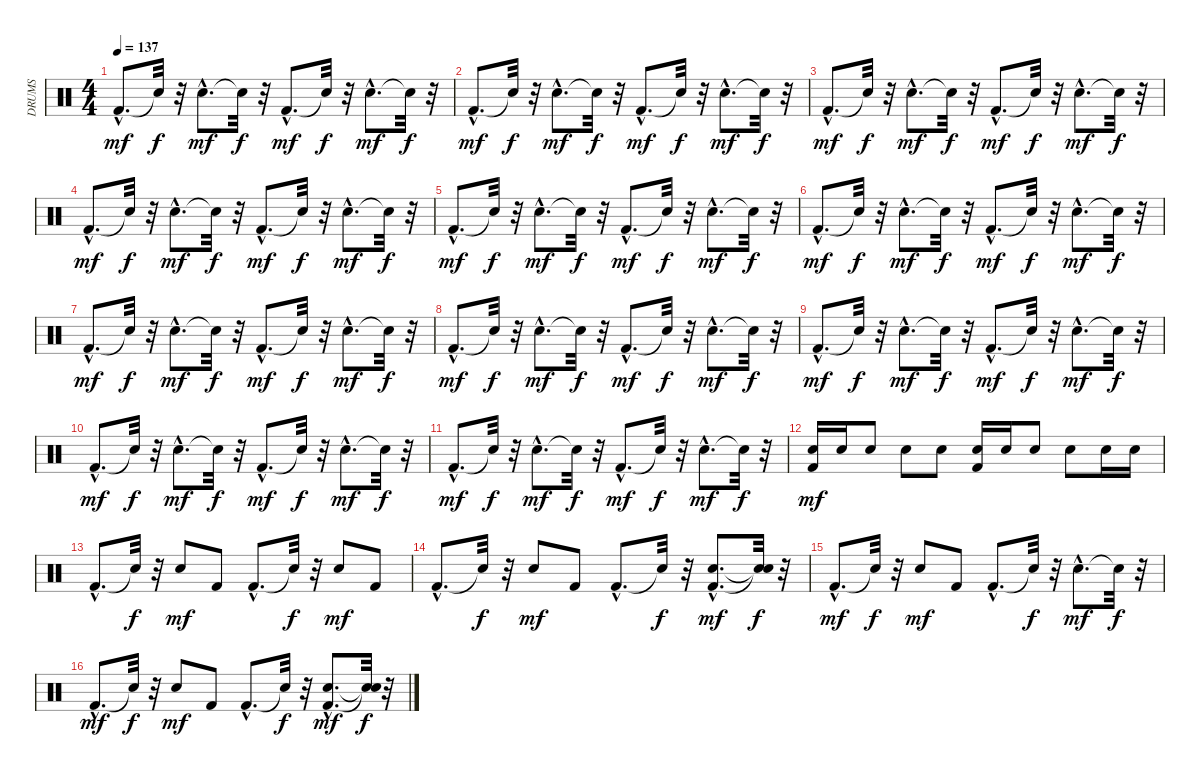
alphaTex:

\track ("DRUMS" "DRUMS") {instrument percussion}
\staff {score}
\articulation defaults
\ts (4 4)
\tempo 137
\clef neutral
\ks c "Kick (hit) 2"{hac}.8{d dy mf} "Snare (hit)"{t}.32{dy f}
r.32 "Snare (hit) 2"{hac}.8{d dy mf} "Snare (hit)"{t}.32{dy f} r.32 "Kick (hit) 2"{hac}.8{d dy mf} "Snare (hit)"{t}.32{dy f} r.32 "Snare (hit) 2"{hac}.8{d dy mf} "Snare (hit)"{t}.32{dy f} r.32 |
"Kick (hit) 2"{hac}.8{d dy mf} "Snare (hit)"{t}.32{dy f} r.32 "Snare (hit) 2"{hac}.8{d dy mf} "Snare (hit)"{t}.32{dy f} r.32 "Kick (hit) 2"{hac}.8{d dy mf} "Snare (hit)"{t}.32{dy f} r.32 "Snare (hit) 2"{hac}.8{d dy mf} "Snare (hit)"{t}.32{dy f} r.32 |
"Kick (hit) 2"{hac}.8{d dy mf} "Snare (hit)"{t}.32{dy f} r.32 "Snare (hit) 2"{hac}.8{d dy mf} "Snare (hit)"{t}.32{dy f} r.32 "Kick (hit) 2"{hac}.8{d dy mf} "Snare (hit)"{t}.32{dy f} r.32 "Snare (hit) 2"{hac}.8{d dy mf} "Snare (hit)"{t}.32{dy f} r.32 |
"Kick (hit) 2"{hac}.8{d dy mf} "Snare (hit)"{t}.32{dy f} r.32 "Snare (hit) 2"{hac}.8{d dy mf} "Snare (hit)"{t}.32{dy f} r.32 "Kick (hit) 2"{hac}.8{d dy mf} "Snare (hit)"{t}.32{dy f} r.32 "Snare (hit) 2"{hac}.8{d dy mf} "Snare (hit)"{t}.32{dy f} r.32 |
"Kick (hit) 2"{hac}.8{d dy mf} "Snare (hit)"{t}.32{dy f} r.32 "Snare (hit) 2"{hac}.8{d dy mf} "Snare (hit)"{t}.32{dy f} r.32 "Kick (hit) 2"{hac}.8{d dy mf} "Snare (hit)"{t}.32{dy f} r.32 "Snare (hit) 2"{hac}.8{d dy mf} "Snare (hit)"{t}.32{dy f} r.32 |
"Kick (hit) 2"{hac}.8{d dy mf} "Snare (hit)"{t}.32{dy f} r.32 "Snare (hit) 2"{hac}.8{d dy mf} "Snare (hit)"{t}.32{dy f} r.32 "Kick (hit) 2"{hac}.8{d dy mf} "Snare (hit)"{t}.32{dy f} r.32 "Snare (hit) 2"{hac}.8{d dy mf} "Snare (hit)"{t}.32{dy f} r.32 |
"Kick (hit) 2"{hac}.8{d dy mf} "Snare (hit)"{t}.32{dy f} r.32 "Snare (hit) 2"{hac}.8{d dy mf} "Snare (hit)"{t}.32{dy f} r.32 "Kick (hit) 2"{hac}.8{d dy mf} "Snare (hit)"{t}.32{dy f} r.32 "Snare (hit) 2"{hac}.8{d dy mf} "Snare (hit)"{t}.32{dy f} r.32 |
"Kick (hit) 2"{hac}.8{d dy mf} "Snare (hit)"{t}.32{dy f} r.32 "Snare (hit) 2"{hac}.8{d dy mf} "Snare (hit)"{t}.32{dy f} r.32 "Kick (hit) 2"{hac}.8{d dy mf} "Snare (hit)"{t}.32{dy f} r.32 "Snare (hit) 2"{hac}.8{d dy mf} "Snare (hit)"{t}.32{dy f} r.32 |
"Kick (hit) 2"{hac}.8{d dy mf} "Snare (hit)"{t}.32{dy f} r.32 "Snare (hit) 2"{hac}.8{d dy mf} "Snare (hit)"{t}.32{dy f} r.32 "Kick (hit) 2"{hac}.8{d dy mf} "Snare (hit)"{t}.32{dy f} r.32 "Snare (hit) 2"{hac}.8{d dy mf} "Snare (hit)"{t}.32{dy f} r.32 |
"Kick (hit) 2"{hac}.8{d dy mf} "Snare (hit)"{t}.32{dy f} r.32 "Snare (hit) 2"{hac}.8{d dy mf} "Snare (hit)"{t}.32{dy f} r.32 "Kick (hit) 2"{hac}.8{d dy mf} "Snare (hit)"{t}.32{dy f} r.32 "Snare (hit) 2"{hac}.8{d dy mf} "Snare (hit)"{t}.32{dy f} r.32 |
"Kick (hit) 2"{hac}.8{d dy mf} "Snare (hit)"{t}.32{dy f} r.32 "Snare (hit) 2"{hac}.8{d dy mf} "Snare (hit)"{t}.32{dy f} r.32 "Kick (hit) 2"{hac}.8{d dy mf} "Snare (hit)"{t}.32{dy f} r.32 "Snare (hit) 2"{hac}.8{d dy mf} "Snare (hit)"{t}.32{dy f} r.32 |
("Kick (hit) 2" "Snare (hit) 2").16{dy mf} "Snare (hit) 2".16 "Snare (hit) 2".8 "Snare (hit) 2".8 "Snare (hit) 2".8 ("Kick (hit) 2" "Snare (hit) 2").16 "Snare (hit) 2".16 "Snare (hit) 2".8 "Snare (hit) 2".8 "Snare (hit) 2".16 "Snare (hit) 2".16 |
"Kick (hit) 2"{hac}.8{d} "Snare (hit)"{t}.32{dy f} r.32 "Snare (hit) 2".8{dy mf} "Kick (hit) 2".8 "Kick (hit) 2"{hac}.8{d} "Snare (hit)"{t}.32{dy f} r.32 "Snare (hit) 2".8{dy mf} "Kick (hit) 2".8 |
"Kick (hit) 2"{hac}.8{d} "Snare (hit)"{t}.32{dy f} r.32 "Snare (hit) 2".8{dy mf} "Kick (hit) 2".8 "Kick (hit) 2"{hac}.8{d} "Snare (hit)"{t}.32{dy f} r.32 ("Kick (hit) 2"{hac} "Snare (hit) 2"{hac}).8{d dy mf} ("Snare (hit)"{t} "Snare (hit)"{t}).32{dy f} r.32 |
"Kick (hit) 2"{hac}.8{d dy mf} "Snare (hit)"{t}.32{dy f} r.32 "Snare (hit) 2".8{dy mf} "Kick (hit) 2".8 "Kick (hit) 2"{hac}.8{d} "Snare (hit)"{t}.32{dy f} r.32 "Snare (hit) 2"{hac}.8{d dy mf} "Snare (hit)"{t}.32{dy f} r.32 |
"Kick (hit) 2"{hac}.8{d dy mf} "Snare (hit)"{t}.32{dy f} r.32 "Snare (hit) 2".8{dy mf} "Kick (hit) 2".8 "Kick (hit) 2"{hac}.8{d} "Snare (hit)"{t}.32{dy f} r.32 ("Snare (hit) 2"{hac} "Kick (hit) 2"{hac}).8{d dy mf} ("Snare (hit)"{t} "Snare (hit)"{t}).32{dy f} r.32
